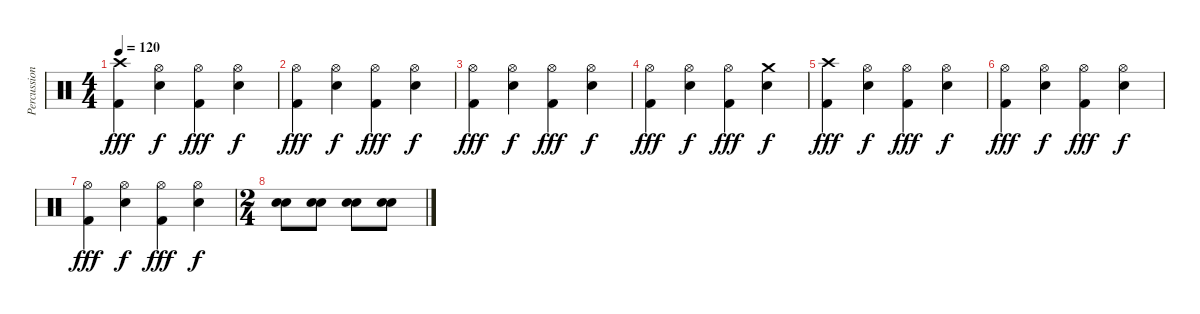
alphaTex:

\track ("Percussion" "Percussion") {instrument percussion}
\staff {score}
\articulation defaults
\ts (4 4)
\tempo 120
\clef neutral
\ks c
("Crash high (hit)" "Kick (hit) 2").4{dy fff} ("Hi-Hat (open)" "Snare (hit) 2").4{dy f} ("Hi-Hat (open)" "Kick (hit) 2").4{dy fff} ("Hi-Hat (open)" "Snare (hit) 2").4{dy f} |
("Hi-Hat (open)" "Kick (hit) 2").4{dy fff} ("Hi-Hat (open)" "Snare (hit) 2").4{dy f} ("Hi-Hat (open)" "Kick (hit) 2").4{dy fff} ("Hi-Hat (open)" "Snare (hit) 2").4{dy f} |
("Hi-Hat (open)" "Kick (hit) 2").4{dy fff} ("Hi-Hat (open)" "Snare (hit) 2").4{dy f} ("Hi-Hat (open)" "Kick (hit) 2").4{dy fff} ("Hi-Hat (open)" "Snare (hit) 2").4{dy f} |
("Hi-Hat (open)" "Kick (hit) 2").4{dy fff} ("Hi-Hat (open)" "Snare (hit) 2").4{dy f} ("Hi-Hat (open)" "Kick (hit) 2").4{dy fff} ("Crash medium (hit)" "Snare (hit) 2").4{dy f} |
("Crash high (hit)" "Kick (hit) 2").4{dy fff} ("Hi-Hat (open)" "Snare (hit) 2").4{dy f} ("Hi-Hat (open)" "Kick (hit) 2").4{dy fff} ("Hi-Hat (open)" "Snare (hit) 2").4{dy f} |
("Hi-Hat (open)" "Kick (hit) 2").4{dy fff} ("Hi-Hat (open)" "Snare (hit) 2").4{dy f} ("Hi-Hat (open)" "Kick (hit) 2").4{dy fff} ("Hi-Hat (open)" "Snare (hit) 2").4{dy f} |
("Hi-Hat (open)" "Kick (hit) 2").4{dy fff} ("Hi-Hat (open)" "Snare (hit) 2").4{dy f} ("Hi-Hat (open)" "Kick (hit) 2").4{dy fff} ("Hi-Hat (open)" "Snare (hit) 2").4{dy f} |
\ts (2 4)
("Snare (hit) 2" "Snare (hit) 2").8 ("Snare (hit) 2" "Snare (hit) 2").8 ("Snare (hit) 2" "Snare (hit) 2").8 ("Snare (hit) 2" "Snare (hit) 2").8
